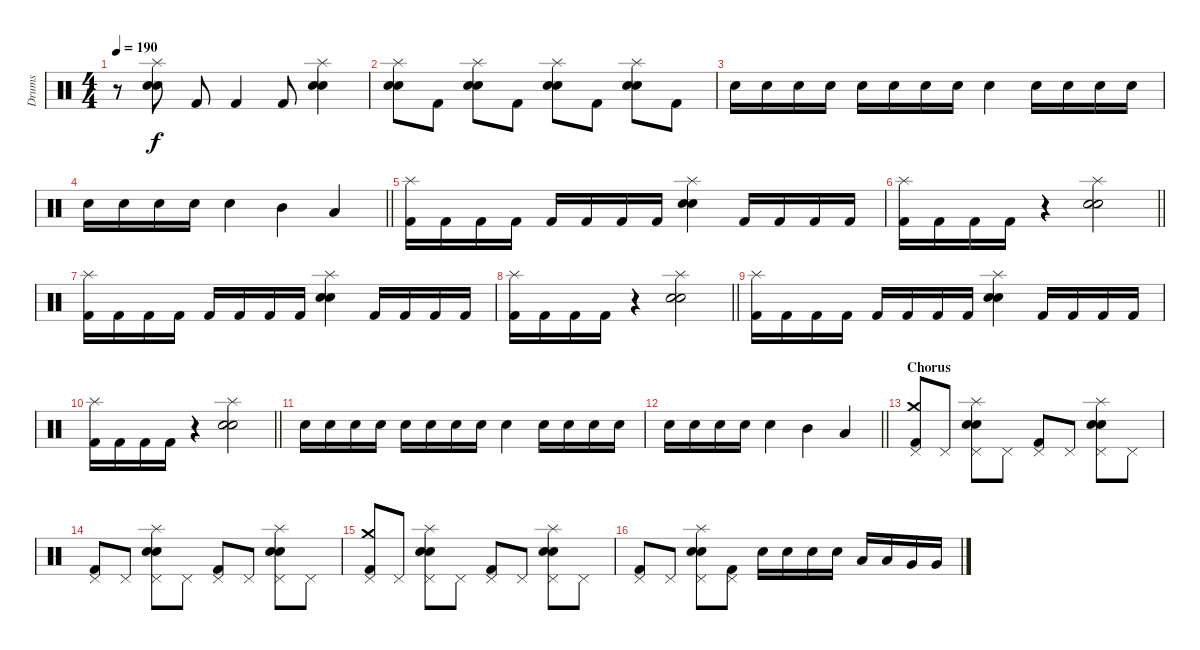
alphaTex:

\track ("Drums" "Drums") {instrument percussion}
\staff {score}
\articulation defaults
\ts (4 4)
\tempo 190
\clef neutral
\ks c
r.8{dy f} ("Splash (hit)" "Electric Snare (hit)" "Snare (hit) 2").8 "Kick (hit) 2".8 "Kick (hit) 2".4 "Kick (hit) 2".8 ("Splash (hit)" "Electric Snare (hit)" "Snare (hit) 2").4 |
("Splash (hit)" "Electric Snare (hit)" "Snare (hit) 2").8 "Kick (hit) 2".8 ("Splash (hit)" "Electric Snare (hit)" "Snare (hit) 2").8 "Kick (hit) 2".8 ("Splash (hit)" "Electric Snare (hit)" "Snare (hit) 2").8 "Kick (hit) 2".8 ("Splash (hit)" "Electric Snare (hit)" "Snare (hit) 2").8 "Kick (hit) 2".8 |
"Electric Snare (hit)".16 "Electric Snare (hit)".16 "Electric Snare (hit)".16 "Electric Snare (hit)".16 "Electric Snare (hit)".16 "Electric Snare (hit)".16 "Electric Snare (hit)".16 "Electric Snare (hit)".16 "Electric Snare (hit)".4 "Electric Snare (hit)".16 "Electric Snare (hit)".16 "Electric Snare (hit)".16 "Electric Snare (hit)".16 |
\barLineRight lightlight "Electric Snare (hit)".16 "Electric Snare (hit)".16 "Electric Snare (hit)".16 "Electric Snare (hit)".16 "Electric Snare (hit)".4 "Mid Tom (hit)".4 "Low Tom (hit)".4
|
("Splash (hit)" "Kick (hit) 2").16 "Kick (hit) 2".16 "Kick (hit) 2".16 "Kick (hit) 2".16 "Kick (hit) 2".16 "Kick (hit) 2".16 "Kick (hit) 2".16 "Kick (hit) 2".16 ("Splash (hit)" "Electric Snare (hit)" "Snare (hit) 2").4 "Kick (hit) 2".16 "Kick (hit) 2".16 "Kick (hit) 2".16 "Kick (hit) 2".16 |
\barLineRight lightlight
("Splash (hit)" "Kick (hit) 2").16 "Kick (hit) 2".16 "Kick (hit) 2".16 "Kick (hit) 2".16 r.4 ("Splash (hit)" "Electric Snare (hit)" "Snare (hit) 2").2 |
("Splash (hit)" "Kick (hit) 2").16 "Kick (hit) 2".16 "Kick (hit) 2".16 "Kick (hit) 2".16 "Kick (hit) 2".16 "Kick (hit) 2".16 "Kick (hit) 2".16 "Kick (hit) 2".16 ("Splash (hit)" "Electric Snare (hit)" "Snare (hit) 2").4 "Kick (hit) 2".16 "Kick (hit) 2".16 "Kick (hit) 2".16 "Kick (hit) 2".16 |
\barLineRight lightlight
("Splash (hit)" "Kick (hit) 2").16 "Kick (hit) 2".16 "Kick (hit) 2".16 "Kick (hit) 2".16 r.4 ("Splash (hit)" "Electric Snare (hit)" "Snare (hit) 2").2 |
("Splash (hit)" "Kick (hit) 2").16 "Kick (hit) 2".16 "Kick (hit) 2".16 "Kick (hit) 2".16 "Kick (hit) 2".16 "Kick (hit) 2".16 "Kick (hit) 2".16 "Kick (hit) 2".16 ("Splash (hit)" "Electric Snare (hit)" "Snare (hit) 2").4 "Kick (hit) 2".16 "Kick (hit) 2".16 "Kick (hit) 2".16 "Kick (hit) 2".16 |
\barLineRight lightlight
("Splash (hit)" "Kick (hit) 2").16 "Kick (hit) 2".16 "Kick (hit) 2".16 "Kick (hit) 2".16 r.4 ("Splash (hit)" "Electric Snare (hit)" "Snare (hit) 2").2 |
"Electric Snare (hit)".16 "Electric Snare (hit)".16 "Electric Snare (hit)".16 "Electric Snare (hit)".16 "Electric Snare (hit)".16 "Electric Snare (hit)".16 "Electric Snare (hit)".16 "Electric Snare (hit)".16 "Electric Snare (hit)".4 "Electric Snare (hit)".16 "Electric Snare (hit)".16 "Electric Snare (hit)".16 "Electric Snare (hit)".16 |
\barLineRight lightlight "Electric Snare (hit)".16 "Electric Snare (hit)".16 "Electric Snare (hit)".16 "Electric Snare (hit)".16 "Electric Snare (hit)".4 "Mid Tom (hit)".4 "Low Tom (hit)".4
|
\section ("" "Chorus")
("Crash medium (hit)" "Pedal Hi-Hat (hit)" "Kick (hit) 2").8 "Pedal Hi-Hat (hit)".8 ("Splash (hit)" "Pedal Hi-Hat (hit)" "Electric Snare (hit)" "Snare (hit) 2").8 "Pedal Hi-Hat (hit)".8 ("Pedal Hi-Hat (hit)" "Kick (hit) 2").8 "Pedal Hi-Hat (hit)".8 ("Splash (hit)" "Pedal Hi-Hat (hit)" "Electric Snare (hit)" "Snare (hit) 2").8 "Pedal Hi-Hat (hit)".8 |
("Pedal Hi-Hat (hit)" "Kick (hit) 2").8 "Pedal Hi-Hat (hit)".8 ("Splash (hit)" "Pedal Hi-Hat (hit)" "Electric Snare (hit)" "Snare (hit) 2").8 "Pedal Hi-Hat (hit)".8 ("Pedal Hi-Hat (hit)" "Kick (hit) 2").8 "Pedal Hi-Hat (hit)".8 ("Splash (hit)" "Pedal Hi-Hat (hit)" "Electric Snare (hit)" "Snare (hit) 2").8 "Pedal Hi-Hat (hit)".8 |
("Crash medium (hit)" "Pedal Hi-Hat (hit)" "Kick (hit) 2").8 "Pedal Hi-Hat (hit)".8 ("Splash (hit)" "Pedal Hi-Hat (hit)" "Electric Snare (hit)" "Snare (hit) 2").8 "Pedal Hi-Hat (hit)".8 ("Pedal Hi-Hat (hit)" "Kick (hit) 2").8 "Pedal Hi-Hat (hit)".8 ("Splash (hit)" "Pedal Hi-Hat (hit)" "Electric Snare (hit)" "Snare (hit) 2").8 "Pedal Hi-Hat (hit)".8 |
("Pedal Hi-Hat (hit)" "Kick (hit) 2").8 "Pedal Hi-Hat (hit)".8 ("Splash (hit)" "Pedal Hi-Hat (hit)" "Electric Snare (hit)" "Snare (hit) 2").8 ("Pedal Hi-Hat (hit)" "Kick (hit) 2").8 "Electric Snare (hit)".16 "Electric Snare (hit)".16 "Electric Snare (hit)".16 "Electric Snare (hit)".16 "Low Tom (hit)".16 "Low Tom (hit)".16 "Very Low Tom (hit)".16 "Very Low Tom (hit)".16
